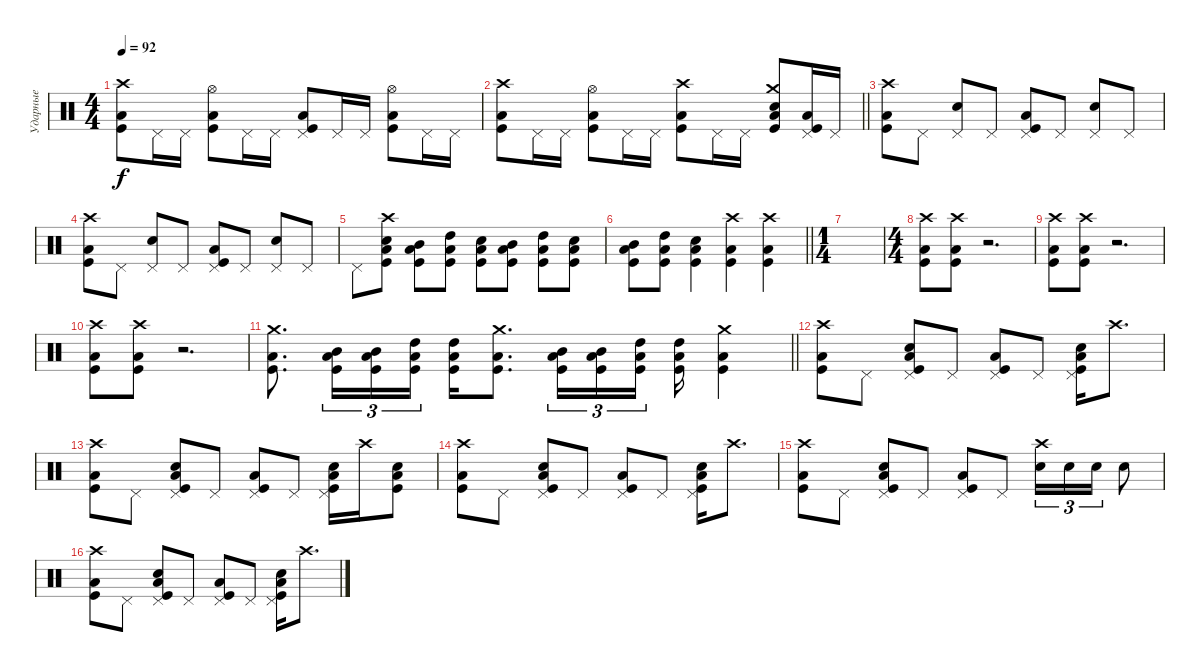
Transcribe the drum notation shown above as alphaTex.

\track ("Ударные" "Ударные") {instrument percussion}
\staff {score}
\articulation defaults
\ts (4 4)
\tempo 92
\clef neutral
\ks c
("Crash high (hit)" "Low Tom (hit)" "Kick (hit)").8{dy f} "Pedal Hi-Hat (hit)".16 "Pedal Hi-Hat (hit)".16 ("Hi-Hat (open)" "Low Tom (hit)" "Kick (hit)").8 "Pedal Hi-Hat (hit)".16 "Pedal Hi-Hat (hit)".16 ("Pedal Hi-Hat (hit)" "Low Tom (hit)" "Kick (hit)").8 "Pedal Hi-Hat (hit)".16 "Pedal Hi-Hat (hit)".16 ("Hi-Hat (open)" "Low Tom (hit)" "Kick (hit)").8 "Pedal Hi-Hat (hit)".16 "Pedal Hi-Hat (hit)".16 |
\barLineRight lightlight
("Crash high (hit)" "Low Tom (hit)" "Kick (hit)").8 "Pedal Hi-Hat (hit)".16 "Pedal Hi-Hat (hit)".16 ("Hi-Hat (open)" "Low Tom (hit)" "Kick (hit)").8 "Pedal Hi-Hat (hit)".16 "Pedal Hi-Hat (hit)".16 ("Crash high (hit)" "Low Tom (hit)" "Kick (hit)").8 "Pedal Hi-Hat (hit)".16 "Pedal Hi-Hat (hit)".16 ("Crash medium (hit)" "Electric Snare (hit)" "Low Tom (hit)" "Kick (hit)").8 ("Pedal Hi-Hat (hit)" "Low Tom (hit)" "Kick (hit)").16 "Pedal Hi-Hat (hit)".16 |
("Crash high (hit)" "Low Tom (hit)" "Kick (hit)").8 "Pedal Hi-Hat (hit)".8 ("Pedal Hi-Hat (hit)" "Electric Snare (hit)").8 "Pedal Hi-Hat (hit)".8 ("Pedal Hi-Hat (hit)" "Low Tom (hit)" "Kick (hit)").8 "Pedal Hi-Hat (hit)".8 ("Pedal Hi-Hat (hit)" "Electric Snare (hit)").8 "Pedal Hi-Hat (hit)".8 |
("Crash high (hit)" "Low Tom (hit)" "Kick (hit)").8 "Pedal Hi-Hat (hit)".8 ("Pedal Hi-Hat (hit)" "Electric Snare (hit)").8 "Pedal Hi-Hat (hit)".8 ("Pedal Hi-Hat (hit)" "Low Tom (hit)" "Kick (hit)").8 "Pedal Hi-Hat (hit)".8 ("Pedal Hi-Hat (hit)" "Electric Snare (hit)").8 "Pedal Hi-Hat (hit)".8 |
"Pedal Hi-Hat (hit)".8 ("Crash high (hit)" "Electric Snare (hit)" "Low Tom (hit)" "Kick (hit)").8 ("Mid Tom (hit)" "Low Tom (hit)" "Kick (hit)").8 ("High Tom (hit)" "Low Tom (hit)" "Kick (hit)").8 ("Electric Snare (hit)" "Low Tom (hit)" "Kick (hit)").8 ("Mid Tom (hit)" "Low Tom (hit)" "Kick (hit)").8 ("High Tom (hit)" "Low Tom (hit)" "Kick (hit)").8 ("Electric Snare (hit)" "Low Tom (hit)" "Kick (hit)").8 |
\barLineRight lightlight
("Mid Tom (hit)" "Low Tom (hit)" "Kick (hit)").8 ("High Tom (hit)" "Low Tom (hit)" "Kick (hit)").8 ("Electric Snare (hit)" "Low Tom (hit)" "Kick (hit)").4 ("Crash high (hit)" "Low Tom (hit)" "Kick (hit)").4 ("Crash high (hit)" "Low Tom (hit)" "Kick (hit)").4 |
\ts (1 4)
|
\ts (4 4)
("Crash high (hit)" "Low Tom (hit)" "Kick (hit)").8 ("Crash high (hit)" "Low Tom (hit)" "Kick (hit)").8 r.2{d} |
("Crash high (hit)" "Low Tom (hit)" "Kick (hit)").8 ("Crash high (hit)" "Low Tom (hit)" "Kick (hit)").8 r.2{d} |
("Crash high (hit)" "Low Tom (hit)" "Kick (hit)").8 ("Crash high (hit)" "Low Tom (hit)" "Kick (hit)").8 r.2{d} |
\barLineRight lightlight
("Crash medium (hit)" "Low Tom (hit)" "Kick (hit)").8{d} ("Mid Tom (hit)" "Low Tom (hit)" "Kick (hit)").16{tu (3 2)} ("Mid Tom (hit)" "Low Tom (hit)" "Kick (hit)").16{tu (3 2)} ("High Tom (hit)" "Low Tom (hit)" "Kick (hit)").16{tu (3 2) beam splitsecondary} ("High Tom (hit)" "Low Tom (hit)" "Kick (hit)").16 ("Crash medium (hit)" "Low Tom (hit)" "Kick (hit)").8{d} ("Mid Tom (hit)" "Low Tom (hit)" "Kick (hit)").16{tu (3 2)} ("Mid Tom (hit)" "Low Tom (hit)" "Kick (hit)").16{tu (3 2)} ("High Tom (hit)" "Low Tom (hit)" "Kick (hit)").16{tu (3 2) beam splitsecondary} ("High Tom (hit)" "Low Tom (hit)" "Kick (hit)").16 ("Crash medium (hit)" "Low Tom (hit)" "Kick (hit)").4 |
("Crash high (hit)" "Low Tom (hit)" "Kick (hit)").8 "Pedal Hi-Hat (hit)".8 ("Pedal Hi-Hat (hit)" "Electric Snare (hit)" "Low Tom (hit)" "Kick (hit)").8 "Pedal Hi-Hat (hit)".8 ("Pedal Hi-Hat (hit)" "Low Tom (hit)" "Kick (hit)").8 "Pedal Hi-Hat (hit)".8 ("Pedal Hi-Hat (hit)" "Electric Snare (hit)" "Kick (hit)" "Low Tom (hit)").16 "Crash high (hit)".8{d} |
("Crash high (hit)" "Low Tom (hit)" "Kick (hit)").8 "Pedal Hi-Hat (hit)".8 ("Pedal Hi-Hat (hit)" "Electric Snare (hit)" "Low Tom (hit)" "Kick (hit)").8 "Pedal Hi-Hat (hit)".8 ("Pedal Hi-Hat (hit)" "Low Tom (hit)" "Kick (hit)").8 "Pedal Hi-Hat (hit)".8 ("Pedal Hi-Hat (hit)" "Electric Snare (hit)" "Low Tom (hit)" "Kick (hit)").16 "Crash high (hit)".16 ("Electric Snare (hit)" "Kick (hit)" "Low Tom (hit)").8 |
("Crash high (hit)" "Low Tom (hit)" "Kick (hit)").8 "Pedal Hi-Hat (hit)".8 ("Pedal Hi-Hat (hit)" "Electric Snare (hit)" "Low Tom (hit)" "Kick (hit)").8 "Pedal Hi-Hat (hit)".8 ("Pedal Hi-Hat (hit)" "Low Tom (hit)" "Kick (hit)").8 "Pedal Hi-Hat (hit)".8 ("Pedal Hi-Hat (hit)" "Electric Snare (hit)" "Kick (hit)" "Low Tom (hit)").16 "Crash high (hit)".8{d} |
("Crash high (hit)" "Low Tom (hit)" "Kick (hit)").8 "Pedal Hi-Hat (hit)".8 ("Pedal Hi-Hat (hit)" "Electric Snare (hit)" "Low Tom (hit)" "Kick (hit)").8 "Pedal Hi-Hat (hit)".8 ("Pedal Hi-Hat (hit)" "Low Tom (hit)" "Kick (hit)").8 "Pedal Hi-Hat (hit)".8 ("Crash high (hit)" "Electric Snare (hit)").16{tu (3 2)} "Electric Snare (hit)".16{tu (3 2)} "Electric Snare (hit)".16{tu (3 2)} "Electric Snare (hit)".8 |
("Crash high (hit)" "Low Tom (hit)" "Kick (hit)").8 "Pedal Hi-Hat (hit)".8 ("Pedal Hi-Hat (hit)" "Electric Snare (hit)" "Low Tom (hit)" "Kick (hit)").8 "Pedal Hi-Hat (hit)".8 ("Pedal Hi-Hat (hit)" "Low Tom (hit)" "Kick (hit)").8 "Pedal Hi-Hat (hit)".8 ("Pedal Hi-Hat (hit)" "Electric Snare (hit)" "Kick (hit)" "Low Tom (hit)").16 "Crash high (hit)".8{d}
